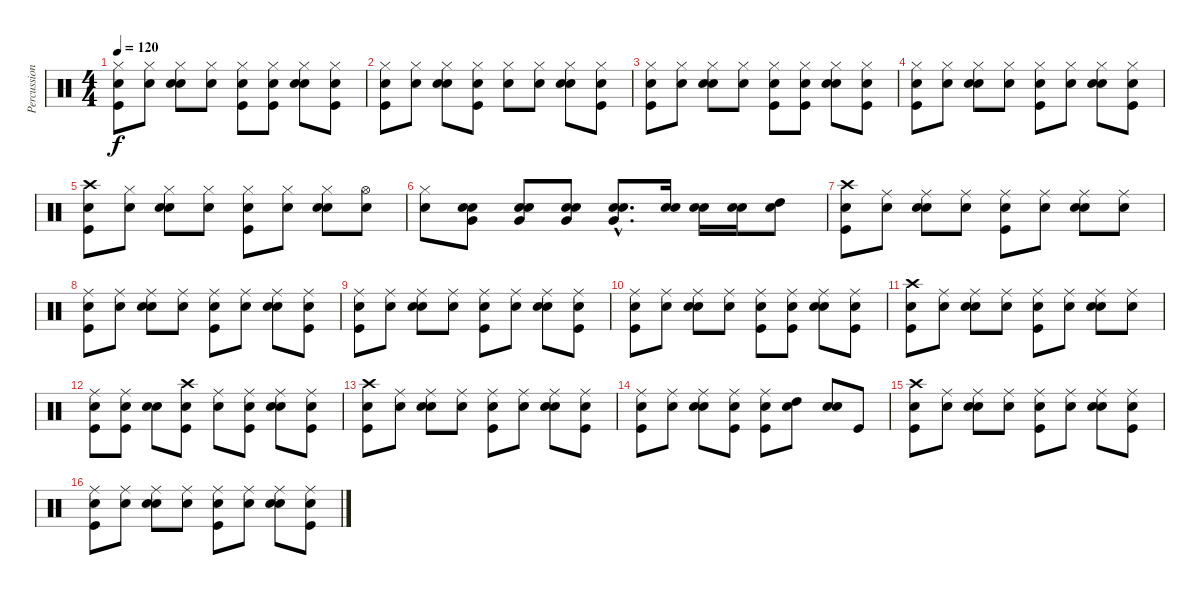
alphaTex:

\track ("Percussion" "Percussion") {instrument percussion}
\staff {score}
\articulation defaults
\ts (4 4)
\tempo 120
\clef neutral
\ks c
("Snare (hit)" "Kick (hit)" "Hi-Hat (closed)").8{dy f} ("Snare (hit)" "Hi-Hat (closed)").8 ("Snare (hit)" "Electric Snare (hit)" "Hi-Hat (closed)").8 ("Snare (hit)" "Hi-Hat (closed)").8 ("Snare (hit)" "Kick (hit)" "Hi-Hat (closed)").8 ("Snare (hit)" "Kick (hit)" "Hi-Hat (closed)").8 ("Snare (hit)" "Electric Snare (hit)" "Hi-Hat (closed)").8 ("Snare (hit)" "Kick (hit)" "Hi-Hat (closed)").8 |
("Snare (hit)" "Kick (hit)" "Hi-Hat (closed)").8 ("Snare (hit)" "Hi-Hat (closed)").8 ("Snare (hit)" "Electric Snare (hit)" "Hi-Hat (closed)").8 ("Snare (hit)" "Kick (hit)" "Hi-Hat (closed)").8 ("Snare (hit)" "Hi-Hat (closed)").8 ("Snare (hit)" "Hi-Hat (closed)").8 ("Snare (hit)" "Electric Snare (hit)" "Hi-Hat (closed)").8 ("Snare (hit)" "Kick (hit)" "Hi-Hat (closed)").8 |
("Snare (hit)" "Kick (hit)" "Hi-Hat (closed)").8 ("Snare (hit)" "Hi-Hat (closed)").8 ("Snare (hit)" "Electric Snare (hit)" "Hi-Hat (closed)").8 ("Snare (hit)" "Hi-Hat (closed)").8 ("Snare (hit)" "Kick (hit)" "Hi-Hat (closed)").8 ("Snare (hit)" "Kick (hit)" "Hi-Hat (closed)").8 ("Snare (hit)" "Electric Snare (hit)" "Hi-Hat (closed)").8 ("Snare (hit)" "Kick (hit)" "Hi-Hat (closed)").8 |
("Snare (hit)" "Kick (hit)" "Hi-Hat (closed)").8 ("Snare (hit)" "Hi-Hat (closed)").8 ("Snare (hit)" "Electric Snare (hit)" "Hi-Hat (closed)").8 ("Snare (hit)" "Hi-Hat (closed)").8 ("Snare (hit)" "Kick (hit)" "Hi-Hat (closed)").8 ("Snare (hit)" "Hi-Hat (closed)").8 ("Snare (hit)" "Electric Snare (hit)" "Hi-Hat (closed)").8 ("Snare (hit)" "Kick (hit)" "Hi-Hat (closed)").8 |
("Snare (hit)" "Kick (hit)" "Crash high (hit)").8 ("Snare (hit)" "Hi-Hat (closed)").8 ("Snare (hit)" "Electric Snare (hit)" "Hi-Hat (closed)").8 ("Snare (hit)" "Hi-Hat (closed)").8 ("Snare (hit)" "Kick (hit)" "Hi-Hat (closed)").8 ("Snare (hit)" "Hi-Hat (closed)").8 ("Snare (hit)" "Electric Snare (hit)" "Hi-Hat (closed)").8 ("Snare (hit)" "Hi-Hat (open)").8 |
("Snare (hit)" "Hi-Hat (closed)").8 ("Snare (hit)" "Electric Snare (hit)" "Very Low Tom (hit)").8 ("Snare (hit)" "Electric Snare (hit)" "Very Low Tom (hit)").8 ("Snare (hit)" "Electric Snare (hit)" "Very Low Tom (hit)").8 ("Snare (hit)"{hac} "Electric Snare (hit)"{hac} "Very Low Tom (hit)"{hac}).8{d} ("Snare (hit)" "Electric Snare (hit)").16 ("Snare (hit)" "Electric Snare (hit)").16 ("Snare (hit)" "Electric Snare (hit)").16 ("Snare (hit)" "High Tom (hit)").8 |
("Snare (hit)" "Kick (hit)" "Crash high (hit)").8 ("Snare (hit)" "Ride (middle)").8 ("Snare (hit)" "Electric Snare (hit)" "Ride (middle)").8 ("Snare (hit)" "Ride (middle)").8 ("Snare (hit)" "Kick (hit)" "Ride (middle)").8 ("Snare (hit)" "Ride (middle)").8 ("Snare (hit)" "Electric Snare (hit)" "Ride (middle)").8 ("Snare (hit)" "Ride (middle)").8 |
("Snare (hit)" "Kick (hit)" "Ride (middle)").8 ("Snare (hit)" "Ride (middle)").8 ("Snare (hit)" "Electric Snare (hit)" "Ride (middle)").8 ("Snare (hit)" "Ride (middle)").8 ("Snare (hit)" "Kick (hit)" "Ride (middle)").8 ("Snare (hit)" "Ride (middle)").8 ("Snare (hit)" "Electric Snare (hit)" "Ride (middle)").8 ("Snare (hit)" "Kick (hit)" "Ride (middle)").8 |
("Snare (hit)" "Kick (hit)" "Ride (middle)").8 ("Snare (hit)" "Ride (middle)").8 ("Snare (hit)" "Electric Snare (hit)" "Ride (middle)").8 ("Snare (hit)" "Ride (middle)").8 ("Snare (hit)" "Kick (hit)" "Ride (middle)").8 ("Snare (hit)" "Ride (middle)").8 ("Snare (hit)" "Electric Snare (hit)" "Ride (middle)").8 ("Snare (hit)" "Kick (hit)" "Ride (middle)").8 |
("Snare (hit)" "Kick (hit)" "Ride (middle)").8 ("Snare (hit)" "Ride (middle)").8 ("Snare (hit)" "Electric Snare (hit)" "Ride (middle)").8 ("Snare (hit)" "Ride (middle)").8 ("Snare (hit)" "Kick (hit)" "Ride (middle)").8 ("Snare (hit)" "Kick (hit)" "Ride (middle)").8 ("Snare (hit)" "Electric Snare (hit)" "Ride (middle)").8 ("Snare (hit)" "Kick (hit)" "Ride (middle)").8 |
("Snare (hit)" "Kick (hit)" "Crash high (hit)").8 ("Snare (hit)" "Ride (middle)").8 ("Snare (hit)" "Electric Snare (hit)" "Ride (middle)").8 ("Snare (hit)" "Ride (middle)").8 ("Snare (hit)" "Kick (hit)" "Ride (middle)").8 ("Snare (hit)" "Ride (middle)").8 ("Snare (hit)" "Electric Snare (hit)" "Ride (middle)").8 ("Snare (hit)" "Ride (middle)").8 |
("Snare (hit)" "Kick (hit)" "Ride (middle)").8 ("Snare (hit)" "Kick (hit)" "Ride (middle)").8 ("Snare (hit)" "Electric Snare (hit)").8 ("Snare (hit)" "Kick (hit)" "Crash high (hit)").8 ("Snare (hit)" "Ride (middle)").8 ("Snare (hit)" "Kick (hit)" "Ride (middle)").8 ("Snare (hit)" "Electric Snare (hit)" "Ride (middle)").8 ("Snare (hit)" "Kick (hit)" "Ride (middle)").8 |
("Snare (hit)" "Kick (hit)" "Crash high (hit)").8 ("Snare (hit)" "Ride (middle)").8 ("Snare (hit)" "Electric Snare (hit)" "Ride (middle)").8 ("Snare (hit)" "Ride (middle)").8 ("Snare (hit)" "Kick (hit)" "Ride (middle)").8 ("Snare (hit)" "Ride (middle)").8 ("Snare (hit)" "Electric Snare (hit)" "Ride (middle)").8 ("Snare (hit)" "Kick (hit)" "Ride (middle)").8 |
("Snare (hit)" "Kick (hit)" "Ride (middle)").8 ("Snare (hit)" "Ride (middle)").8 ("Snare (hit)" "Electric Snare (hit)" "Ride (middle)").8 ("Snare (hit)" "Kick (hit)" "Ride (middle)").8 ("Snare (hit)" "Kick (hit)" "Ride (middle)").8 ("Snare (hit)" "High Tom (hit)").8 ("Snare (hit)" "Electric Snare (hit)").8 "Kick (hit)".8 |
("Snare (hit)" "Kick (hit)" "Crash high (hit)").8 ("Snare (hit)" "Ride (middle)").8 ("Snare (hit)" "Electric Snare (hit)" "Ride (middle)").8 ("Snare (hit)" "Ride (middle)").8 ("Snare (hit)" "Kick (hit)" "Ride (middle)").8 ("Snare (hit)" "Ride (middle)").8 ("Snare (hit)" "Electric Snare (hit)" "Ride (middle)").8 ("Snare (hit)" "Kick (hit)" "Ride (middle)").8 |
("Snare (hit)" "Kick (hit)" "Ride (middle)").8 ("Snare (hit)" "Ride (middle)").8 ("Snare (hit)" "Electric Snare (hit)" "Ride (middle)").8 ("Snare (hit)" "Ride (middle)").8 ("Snare (hit)" "Kick (hit)" "Ride (middle)").8 ("Snare (hit)" "Ride (middle)").8 ("Snare (hit)" "Electric Snare (hit)" "Ride (middle)").8 ("Snare (hit)" "Kick (hit)" "Ride (middle)").8
